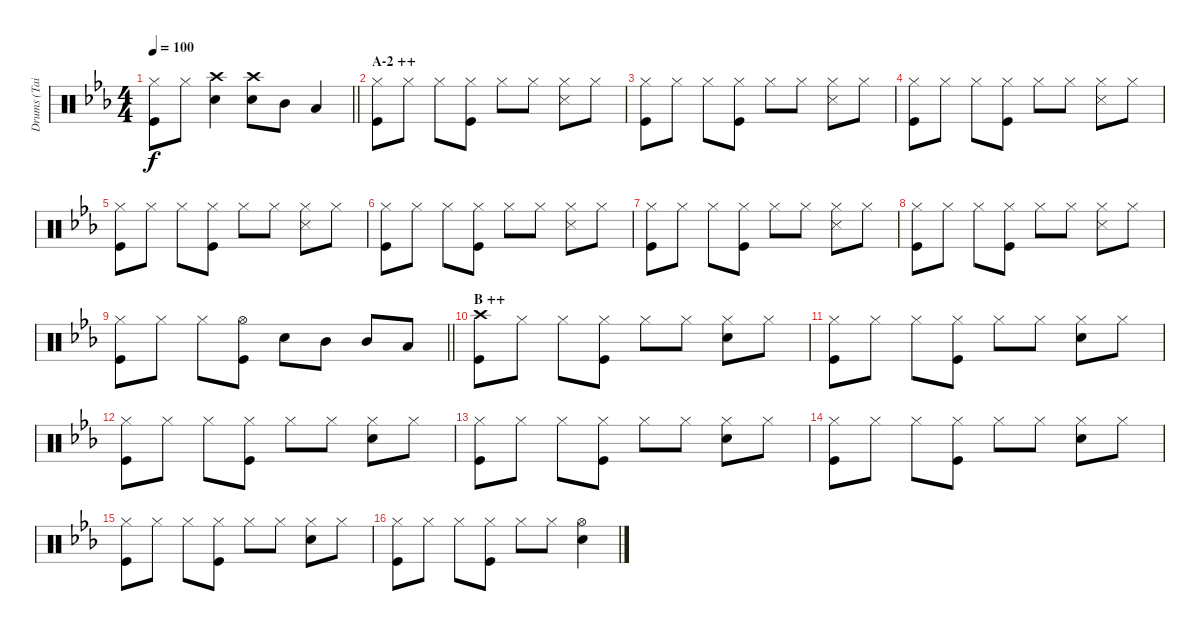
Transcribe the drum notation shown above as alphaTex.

\track ("Drums (Tainaka Ritsu)" "Drums (Tai") {instrument percussion}
\staff {score}
\articulation defaults
\ts (4 4)
\tempo 100
\clef neutral
\barLineRight lightlight
\ks eb
("Hi-Hat (closed)" "Kick (hit)").8{dy f} "Hi-Hat (closed)".8 ("Crash high (hit)" "Snare (hit) 2").4 ("Crash high (hit)" "Snare (hit) 2").8 "Mid Tom (hit)".8 "Low Tom (hit)".4 |
\section ("" "A-2 ++")
("Hi-Hat (closed)" "Kick (hit)").8 "Hi-Hat (closed)".8 "Hi-Hat (closed)".8 ("Hi-Hat (closed)" "Kick (hit)").8 "Hi-Hat (closed)".8 "Hi-Hat (closed)".8 ("Hi-Hat (closed)" "Snare (side stick) 3").8 "Hi-Hat (closed)".8 |
("Hi-Hat (closed)" "Kick (hit)").8 "Hi-Hat (closed)".8 "Hi-Hat (closed)".8 ("Hi-Hat (closed)" "Kick (hit)").8 "Hi-Hat (closed)".8 "Hi-Hat (closed)".8 ("Hi-Hat (closed)" "Snare (side stick) 3").8 "Hi-Hat (closed)".8 |
("Hi-Hat (closed)" "Kick (hit)").8 "Hi-Hat (closed)".8 "Hi-Hat (closed)".8 ("Hi-Hat (closed)" "Kick (hit)").8 "Hi-Hat (closed)".8 "Hi-Hat (closed)".8 ("Hi-Hat (closed)" "Snare (side stick) 3").8 "Hi-Hat (closed)".8 |
("Hi-Hat (closed)" "Kick (hit)").8 "Hi-Hat (closed)".8 "Hi-Hat (closed)".8 ("Hi-Hat (closed)" "Kick (hit)").8 "Hi-Hat (closed)".8 "Hi-Hat (closed)".8 ("Hi-Hat (closed)" "Snare (side stick) 3").8 "Hi-Hat (closed)".8 |
("Hi-Hat (closed)" "Kick (hit)").8 "Hi-Hat (closed)".8 "Hi-Hat (closed)".8 ("Hi-Hat (closed)" "Kick (hit)").8 "Hi-Hat (closed)".8 "Hi-Hat (closed)".8 ("Hi-Hat (closed)" "Snare (side stick) 3").8 "Hi-Hat (closed)".8 |
("Hi-Hat (closed)" "Kick (hit)").8 "Hi-Hat (closed)".8 "Hi-Hat (closed)".8 ("Hi-Hat (closed)" "Kick (hit)").8 "Hi-Hat (closed)".8 "Hi-Hat (closed)".8 ("Hi-Hat (closed)" "Snare (side stick) 3").8 "Hi-Hat (closed)".8 |
("Hi-Hat (closed)" "Kick (hit)").8 "Hi-Hat (closed)".8 "Hi-Hat (closed)".8 ("Hi-Hat (closed)" "Kick (hit)").8 "Hi-Hat (closed)".8 "Hi-Hat (closed)".8 ("Hi-Hat (closed)" "Snare (side stick) 3").8 "Hi-Hat (closed)".8 |
\barLineRight lightlight
("Hi-Hat (closed)" "Kick (hit)").8 "Hi-Hat (closed)".8 "Hi-Hat (closed)".8 ("Hi-Hat (open)" "Kick (hit)").8 "Snare (hit) 2".8 "Mid Tom (hit)".8 "Mid Tom (hit)".8 "Low Tom (hit)".8 |
\section ("" "B ++")
("Crash high (hit)" "Kick (hit)").8 "Hi-Hat (closed)".8 "Hi-Hat (closed)".8 ("Hi-Hat (closed)" "Kick (hit)").8 "Hi-Hat (closed)".8 "Hi-Hat (closed)".8 ("Hi-Hat (closed)" "Snare (hit) 2").8 "Hi-Hat (closed)".8 |
("Hi-Hat (closed)" "Kick (hit)").8 "Hi-Hat (closed)".8 "Hi-Hat (closed)".8 ("Hi-Hat (closed)" "Kick (hit)").8 "Hi-Hat (closed)".8 "Hi-Hat (closed)".8 ("Hi-Hat (closed)" "Snare (hit) 2").8 "Hi-Hat (closed)".8 |
("Hi-Hat (closed)" "Kick (hit)").8 "Hi-Hat (closed)".8 "Hi-Hat (closed)".8 ("Hi-Hat (closed)" "Kick (hit)").8 "Hi-Hat (closed)".8 "Hi-Hat (closed)".8 ("Hi-Hat (closed)" "Snare (hit) 2").8 "Hi-Hat (closed)".8 |
("Hi-Hat (closed)" "Kick (hit)").8 "Hi-Hat (closed)".8 "Hi-Hat (closed)".8 ("Hi-Hat (closed)" "Kick (hit)").8 "Hi-Hat (closed)".8 "Hi-Hat (closed)".8 ("Hi-Hat (closed)" "Snare (hit) 2").8 "Hi-Hat (closed)".8 |
("Hi-Hat (closed)" "Kick (hit)").8 "Hi-Hat (closed)".8 "Hi-Hat (closed)".8 ("Hi-Hat (closed)" "Kick (hit)").8 "Hi-Hat (closed)".8 "Hi-Hat (closed)".8 ("Hi-Hat (closed)" "Snare (hit) 2").8 "Hi-Hat (closed)".8 |
("Hi-Hat (closed)" "Kick (hit)").8 "Hi-Hat (closed)".8 "Hi-Hat (closed)".8 ("Hi-Hat (closed)" "Kick (hit)").8 "Hi-Hat (closed)".8 "Hi-Hat (closed)".8 ("Hi-Hat (closed)" "Snare (hit) 2").8 "Hi-Hat (closed)".8 |
("Hi-Hat (closed)" "Kick (hit)").8 "Hi-Hat (closed)".8 "Hi-Hat (closed)".8 ("Hi-Hat (closed)" "Kick (hit)").8 "Hi-Hat (closed)".8 "Hi-Hat (closed)".8 ("Hi-Hat (open)" "Snare (hit) 2").4
